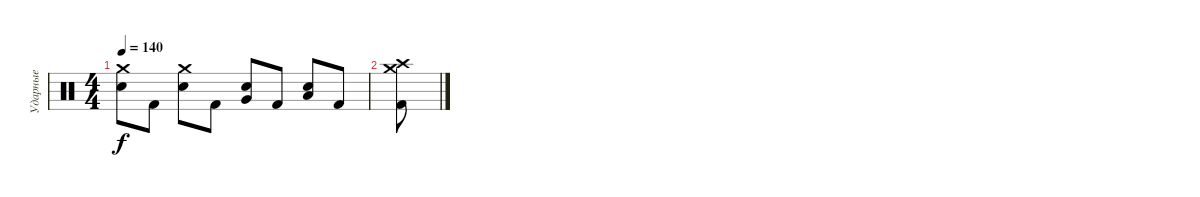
\track ("Ударные" "Ударные") {instrument percussion}
\staff {score}
\articulation defaults
\ts (4 4)
\tempo 140
\clef neutral
\ks c
("Crash medium (hit)" "Electric Snare (hit)").8{dy f} "Kick (hit) 2".8 ("Crash medium (hit)" "Electric Snare (hit)").8 "Kick (hit) 2".8 ("Electric Snare (hit)" "Very Low Tom (hit)").8 "Kick (hit) 2".8 ("Electric Snare (hit)" "Low Floor Tom (hit)").8 "Kick (hit) 2".8 |
("Crash high (hit)" "Crash medium (hit)" "Kick (hit) 2").8
